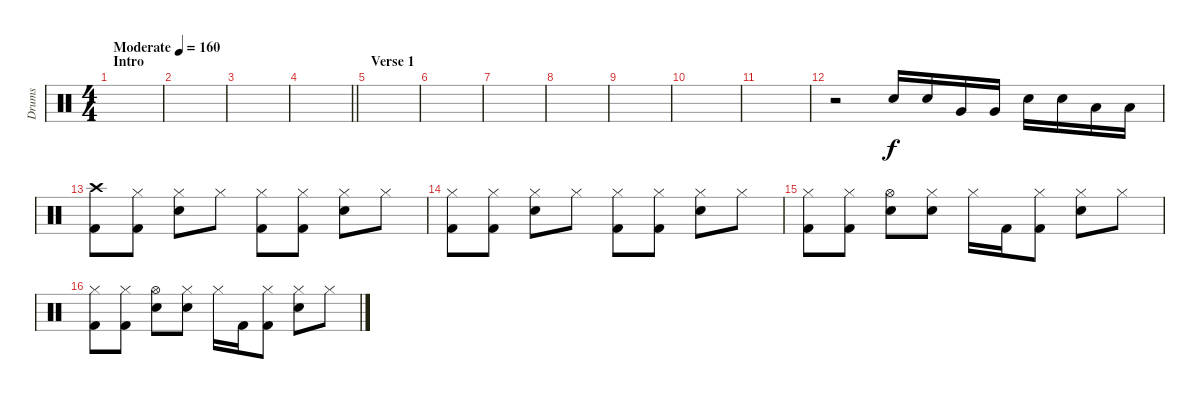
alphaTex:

\track ("Drums" "Drums") {instrument percussion}
\staff {score}
\articulation defaults
\ts (4 4)
\section ("" "Intro")
\tempo (160 "Moderate")
\clef neutral
\ks c
|
|
|
\barLineRight lightlight
|
\section ("" "Verse 1")
|
|
|
|
|
|
|
r.2 "Snare (hit) 2".16 "Snare (hit) 2".16 "Very Low Tom (hit)".16 "Very Low Tom (hit)".16 "Snare (hit) 2".16 "Snare (hit) 2".16 "Low Tom (hit)".16 "Low Tom (hit)".16 |
("Crash high (hit)" "Kick (hit) 2").8 ("Hi-Hat (closed)" "Kick (hit) 2").8 ("Hi-Hat (closed)" "Snare (hit) 2").8 "Hi-Hat (closed)".8 ("Hi-Hat (closed)" "Kick (hit) 2").8 ("Hi-Hat (closed)" "Kick (hit) 2").8 ("Hi-Hat (closed)" "Snare (hit) 2").8 "Hi-Hat (closed)".8 |
("Hi-Hat (closed)" "Kick (hit) 2").8 ("Hi-Hat (closed)" "Kick (hit) 2").8 ("Hi-Hat (closed)" "Snare (hit) 2").8 "Hi-Hat (closed)".8 ("Hi-Hat (closed)" "Kick (hit) 2").8 ("Hi-Hat (closed)" "Kick (hit) 2").8 ("Hi-Hat (closed)" "Snare (hit) 2").8 "Hi-Hat (closed)".8 |
("Hi-Hat (closed)" "Kick (hit) 2").8 ("Hi-Hat (closed)" "Kick (hit) 2").8 ("Hi-Hat (open)" "Snare (hit) 2").8 ("Hi-Hat (closed)" "Snare (hit) 2").8 "Hi-Hat (closed)".16 "Kick (hit) 2".16 ("Hi-Hat (closed)" "Kick (hit) 2").8 ("Hi-Hat (closed)" "Snare (hit) 2").8 "Hi-Hat (closed)".8 |
("Hi-Hat (closed)" "Kick (hit) 2").8 ("Hi-Hat (closed)" "Kick (hit) 2").8 ("Hi-Hat (open)" "Snare (hit) 2").8 ("Hi-Hat (closed)" "Snare (hit) 2").8 "Hi-Hat (closed)".16 "Kick (hit) 2".16 ("Hi-Hat (closed)" "Kick (hit) 2").8 ("Hi-Hat (closed)" "Snare (hit) 2").8 "Hi-Hat (closed)".8
